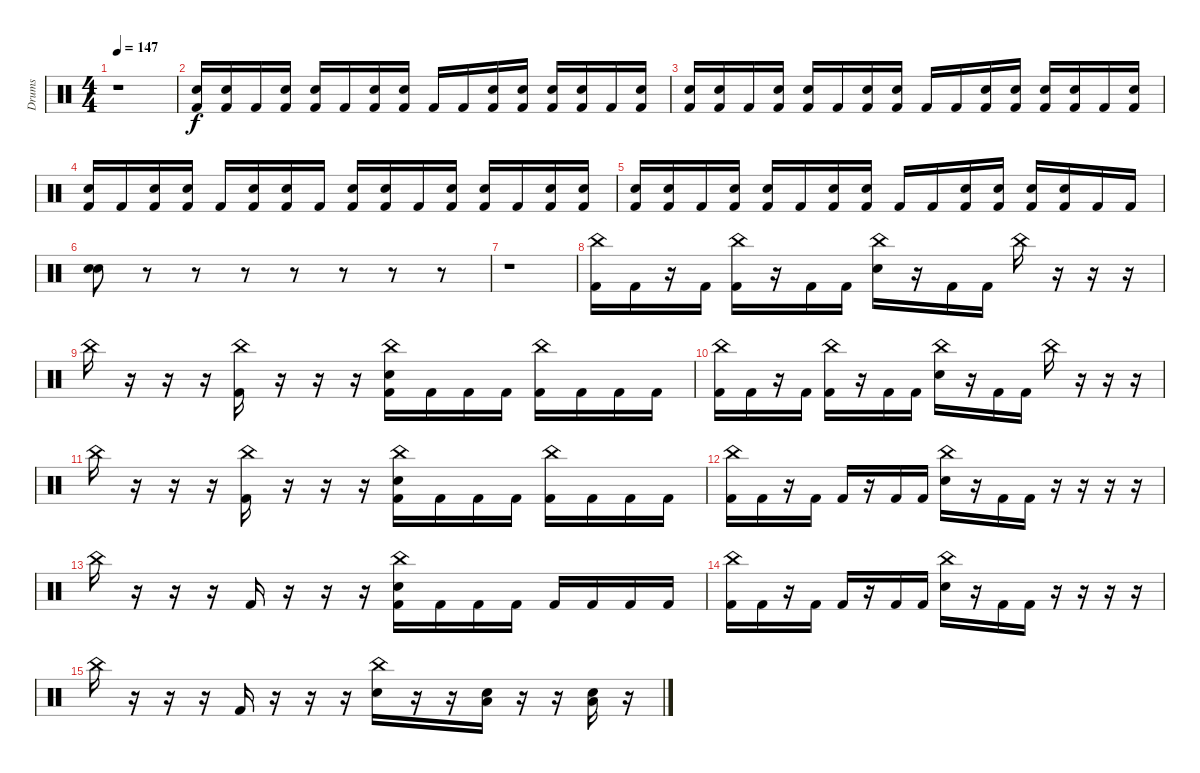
\track ("Drums" "Drums") {instrument percussion}
\staff {score}
\articulation defaults
\ts (4 4)
\tempo 147
\clef neutral
\ks c
r.1{dy f} |
("Electric Snare (hit)" "Kick (hit) 2").16 ("Electric Snare (hit)" "Kick (hit) 2").16 "Kick (hit) 2".16 ("Electric Snare (hit)" "Kick (hit) 2").16 ("Electric Snare (hit)" "Kick (hit) 2").16 "Kick (hit) 2".16 ("Electric Snare (hit)" "Kick (hit) 2").16 ("Electric Snare (hit)" "Kick (hit) 2").16 "Kick (hit) 2".16 "Kick (hit) 2".16 ("Electric Snare (hit)" "Kick (hit) 2").16 ("Electric Snare (hit)" "Kick (hit) 2").16 ("Electric Snare (hit)" "Kick (hit) 2").16 ("Electric Snare (hit)" "Kick (hit) 2").16 "Kick (hit) 2".16 ("Electric Snare (hit)" "Kick (hit) 2").16 |
("Electric Snare (hit)" "Kick (hit) 2").16 ("Electric Snare (hit)" "Kick (hit) 2").16 "Kick (hit) 2".16 ("Electric Snare (hit)" "Kick (hit) 2").16 ("Electric Snare (hit)" "Kick (hit) 2").16 "Kick (hit) 2".16 ("Electric Snare (hit)" "Kick (hit) 2").16 ("Electric Snare (hit)" "Kick (hit) 2").16 "Kick (hit) 2".16 "Kick (hit) 2".16 ("Electric Snare (hit)" "Kick (hit) 2").16 ("Electric Snare (hit)" "Kick (hit) 2").16 ("Electric Snare (hit)" "Kick (hit) 2").16 ("Electric Snare (hit)" "Kick (hit) 2").16 "Kick (hit) 2".16 ("Electric Snare (hit)" "Kick (hit) 2").16 |
("Electric Snare (hit)" "Kick (hit) 2").16 "Kick (hit) 2".16 ("Electric Snare (hit)" "Kick (hit) 2").16 ("Electric Snare (hit)" "Kick (hit) 2").16 "Kick (hit) 2".16 ("Electric Snare (hit)" "Kick (hit) 2").16 ("Electric Snare (hit)" "Kick (hit) 2").16 "Kick (hit) 2".16 ("Electric Snare (hit)" "Kick (hit) 2").16 ("Electric Snare (hit)" "Kick (hit) 2").16 "Kick (hit) 2".16 ("Electric Snare (hit)" "Kick (hit) 2").16 ("Electric Snare (hit)" "Kick (hit) 2").16 "Kick (hit) 2".16 ("Electric Snare (hit)" "Kick (hit) 2").16 ("Electric Snare (hit)" "Kick (hit) 2").16 |
("Electric Snare (hit)" "Kick (hit) 2").16 ("Electric Snare (hit)" "Kick (hit) 2").16 "Kick (hit) 2".16 ("Electric Snare (hit)" "Kick (hit) 2").16 ("Electric Snare (hit)" "Kick (hit) 2").16 "Kick (hit) 2".16 ("Electric Snare (hit)" "Kick (hit) 2").16 ("Electric Snare (hit)" "Kick (hit) 2").16 "Kick (hit) 2".16 "Kick (hit) 2".16 ("Electric Snare (hit)" "Kick (hit) 2").16 ("Electric Snare (hit)" "Kick (hit) 2").16 ("Electric Snare (hit)" "Kick (hit) 2").16 ("Electric Snare (hit)" "Kick (hit) 2").16 "Kick (hit) 2".16 "Kick (hit) 2".16 |
("Electric Snare (hit)" "Electric Snare (hit)").8 r.8 r.8 r.8 r.8 r.8 r.8 r.8 |
r.1 |
("China (hit)" "Kick (hit) 2").16 "Kick (hit) 2".16 r.16 "Kick (hit) 2".16 ("China (hit)" "Kick (hit) 2").16 r.16 "Kick (hit) 2".16 "Kick (hit) 2".16 ("China (hit)" "Electric Snare (hit)").16 r.16 "Kick (hit) 2".16 "Kick (hit) 2".16 "China (hit)".16 r.16 r.16 r.16 |
"China (hit)".16 r.16 r.16 r.16 ("China (hit)" "Kick (hit) 2").16 r.16 r.16 r.16 ("China (hit)" "Electric Snare (hit)" "Kick (hit) 2").16 "Kick (hit) 2".16 "Kick (hit) 2".16 "Kick (hit) 2".16 ("China (hit)" "Kick (hit) 2").16 "Kick (hit) 2".16 "Kick (hit) 2".16 "Kick (hit) 2".16 |
("China (hit)" "Kick (hit) 2").16 "Kick (hit) 2".16 r.16 "Kick (hit) 2".16 ("China (hit)" "Kick (hit) 2").16 r.16 "Kick (hit) 2".16 "Kick (hit) 2".16 ("China (hit)" "Electric Snare (hit)").16 r.16 "Kick (hit) 2".16 "Kick (hit) 2".16 "China (hit)".16 r.16 r.16 r.16 |
"China (hit)".16 r.16 r.16 r.16 ("China (hit)" "Kick (hit) 2").16 r.16 r.16 r.16 ("China (hit)" "Electric Snare (hit)" "Kick (hit) 2").16 "Kick (hit) 2".16 "Kick (hit) 2".16 "Kick (hit) 2".16 ("China (hit)" "Kick (hit) 2").16 "Kick (hit) 2".16 "Kick (hit) 2".16 "Kick (hit) 2".16 |
("China (hit)" "Kick (hit) 2").16 "Kick (hit) 2".16 r.16 "Kick (hit) 2".16 "Kick (hit) 2".16 r.16 "Kick (hit) 2".16 "Kick (hit) 2".16 ("China (hit)" "Electric Snare (hit)").16 r.16 "Kick (hit) 2".16 "Kick (hit) 2".16 r.16 r.16 r.16 r.16 |
"China (hit)".16 r.16 r.16 r.16 "Kick (hit) 2".16 r.16 r.16 r.16 ("China (hit)" "Electric Snare (hit)" "Kick (hit) 2").16 "Kick (hit) 2".16 "Kick (hit) 2".16 "Kick (hit) 2".16 "Kick (hit) 2".16 "Kick (hit) 2".16 "Kick (hit) 2".16 "Kick (hit) 2".16 |
("China (hit)" "Kick (hit) 2").16 "Kick (hit) 2".16 r.16 "Kick (hit) 2".16 "Kick (hit) 2".16 r.16 "Kick (hit) 2".16 "Kick (hit) 2".16 ("China (hit)" "Electric Snare (hit)").16 r.16 "Kick (hit) 2".16 "Kick (hit) 2".16 r.16 r.16 r.16 r.16 |
"China (hit)".16 r.16 r.16 r.16 "Kick (hit) 2".16 r.16 r.16 r.16 ("China (hit)" "Electric Snare (hit)").16 r.16 r.16 ("Low Floor Tom (hit)" "Electric Snare (hit)").16 r.16 r.16 ("Low Floor Tom (hit)" "Electric Snare (hit)").16 r.16
